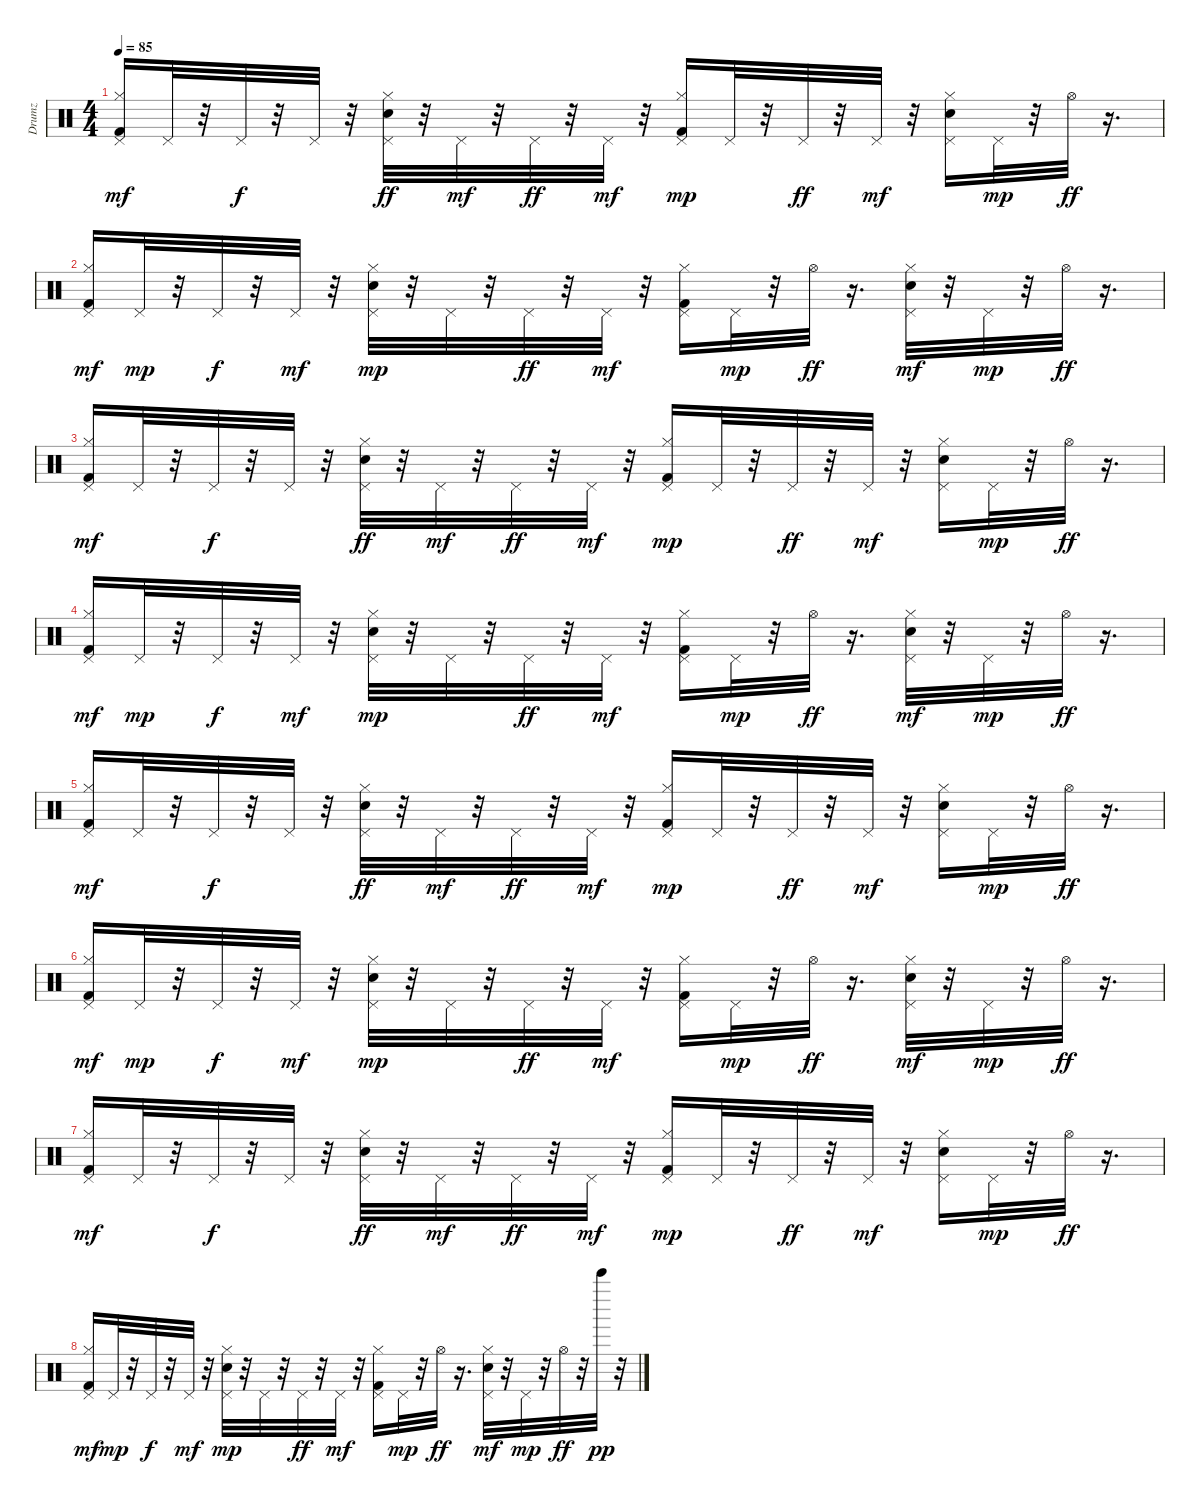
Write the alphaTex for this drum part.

\track ("Drumz" "Drumz") {instrument percussion}
\staff {score}
\articulation defaults
\ts (4 4)
\tempo 85
\clef neutral
\ks c
("Kick (hit) 2" "Hi-Hat (closed)" "Pedal Hi-Hat (hit)").16{dy mf volume 12} "Pedal Hi-Hat (hit)".32 r.32 "Pedal Hi-Hat (hit)".32{dy f} r.32 "Pedal Hi-Hat (hit)".32 r.32 ("Hand Clap (hit)" "Hi-Hat (closed)" "Pedal Hi-Hat (hit)").32{dy ff} r.32 "Pedal Hi-Hat (hit)".32{dy mf} r.32 "Pedal Hi-Hat (hit)".32{dy ff} r.32 "Pedal Hi-Hat (hit)".32{dy mf} r.32 ("Kick (hit) 2" "Hi-Hat (closed)" "Pedal Hi-Hat (hit)").16{dy mp} "Pedal Hi-Hat (hit)".32 r.32 "Pedal Hi-Hat (hit)".32{dy ff} r.32 "Pedal Hi-Hat (hit)".32{dy mf} r.32 ("Hand Clap (hit)" "Hi-Hat (closed)" "Pedal Hi-Hat (hit)").16 "Pedal Hi-Hat (hit)".32{dy mp} r.32 "Hi-Hat (open)".32{dy ff} r.16{d} |
("Kick (hit) 2" "Hi-Hat (closed)" "Pedal Hi-Hat (hit)").16{dy mf} "Pedal Hi-Hat (hit)".32{dy mp} r.32 "Pedal Hi-Hat (hit)".32{dy f} r.32 "Pedal Hi-Hat (hit)".32{dy mf} r.32 ("Hand Clap (hit)" "Hi-Hat (closed)" "Pedal Hi-Hat (hit)").32{dy mp} r.32 "Pedal Hi-Hat (hit)".32 r.32 "Pedal Hi-Hat (hit)".32{dy ff} r.32 "Pedal Hi-Hat (hit)".32{dy mf} r.32 ("Kick (hit) 2" "Hi-Hat (closed)" "Pedal Hi-Hat (hit)").16 "Pedal Hi-Hat (hit)".32{dy mp} r.32 "Hi-Hat (open)".32{dy ff} r.16{d} ("Hand Clap (hit)" "Hi-Hat (closed)" "Pedal Hi-Hat (hit)").32{dy mf} r.32 "Pedal Hi-Hat (hit)".32{dy mp} r.32 "Hi-Hat (open)".32{dy ff} r.16{d} |
("Kick (hit) 2" "Hi-Hat (closed)" "Pedal Hi-Hat (hit)").16{dy mf} "Pedal Hi-Hat (hit)".32 r.32 "Pedal Hi-Hat (hit)".32{dy f} r.32 "Pedal Hi-Hat (hit)".32 r.32 ("Hand Clap (hit)" "Hi-Hat (closed)" "Pedal Hi-Hat (hit)").32{dy ff} r.32 "Pedal Hi-Hat (hit)".32{dy mf} r.32 "Pedal Hi-Hat (hit)".32{dy ff} r.32 "Pedal Hi-Hat (hit)".32{dy mf} r.32 ("Kick (hit) 2" "Hi-Hat (closed)" "Pedal Hi-Hat (hit)").16{dy mp} "Pedal Hi-Hat (hit)".32 r.32 "Pedal Hi-Hat (hit)".32{dy ff} r.32 "Pedal Hi-Hat (hit)".32{dy mf} r.32 ("Hand Clap (hit)" "Hi-Hat (closed)" "Pedal Hi-Hat (hit)").16 "Pedal Hi-Hat (hit)".32{dy mp} r.32 "Hi-Hat (open)".32{dy ff} r.16{d} |
("Kick (hit) 2" "Hi-Hat (closed)" "Pedal Hi-Hat (hit)").16{dy mf} "Pedal Hi-Hat (hit)".32{dy mp} r.32 "Pedal Hi-Hat (hit)".32{dy f} r.32 "Pedal Hi-Hat (hit)".32{dy mf} r.32 ("Hand Clap (hit)" "Hi-Hat (closed)" "Pedal Hi-Hat (hit)").32{dy mp} r.32 "Pedal Hi-Hat (hit)".32 r.32 "Pedal Hi-Hat (hit)".32{dy ff} r.32 "Pedal Hi-Hat (hit)".32{dy mf} r.32 ("Kick (hit) 2" "Hi-Hat (closed)" "Pedal Hi-Hat (hit)").16 "Pedal Hi-Hat (hit)".32{dy mp} r.32 "Hi-Hat (open)".32{dy ff} r.16{d} ("Hand Clap (hit)" "Hi-Hat (closed)" "Pedal Hi-Hat (hit)").32{dy mf} r.32 "Pedal Hi-Hat (hit)".32{dy mp} r.32 "Hi-Hat (open)".32{dy ff} r.16{d} |
("Kick (hit) 2" "Hi-Hat (closed)" "Pedal Hi-Hat (hit)").16{dy mf} "Pedal Hi-Hat (hit)".32 r.32 "Pedal Hi-Hat (hit)".32{dy f} r.32 "Pedal Hi-Hat (hit)".32 r.32 ("Hand Clap (hit)" "Hi-Hat (closed)" "Pedal Hi-Hat (hit)").32{dy ff} r.32 "Pedal Hi-Hat (hit)".32{dy mf} r.32 "Pedal Hi-Hat (hit)".32{dy ff} r.32 "Pedal Hi-Hat (hit)".32{dy mf} r.32 ("Kick (hit) 2" "Hi-Hat (closed)" "Pedal Hi-Hat (hit)").16{dy mp} "Pedal Hi-Hat (hit)".32 r.32 "Pedal Hi-Hat (hit)".32{dy ff} r.32 "Pedal Hi-Hat (hit)".32{dy mf} r.32 ("Hand Clap (hit)" "Hi-Hat (closed)" "Pedal Hi-Hat (hit)").16 "Pedal Hi-Hat (hit)".32{dy mp} r.32 "Hi-Hat (open)".32{dy ff} r.16{d} |
("Kick (hit) 2" "Hi-Hat (closed)" "Pedal Hi-Hat (hit)").16{dy mf} "Pedal Hi-Hat (hit)".32{dy mp} r.32 "Pedal Hi-Hat (hit)".32{dy f} r.32 "Pedal Hi-Hat (hit)".32{dy mf} r.32 ("Hand Clap (hit)" "Hi-Hat (closed)" "Pedal Hi-Hat (hit)").32{dy mp} r.32 "Pedal Hi-Hat (hit)".32 r.32 "Pedal Hi-Hat (hit)".32{dy ff} r.32 "Pedal Hi-Hat (hit)".32{dy mf} r.32 ("Kick (hit) 2" "Hi-Hat (closed)" "Pedal Hi-Hat (hit)").16 "Pedal Hi-Hat (hit)".32{dy mp} r.32 "Hi-Hat (open)".32{dy ff} r.16{d} ("Hand Clap (hit)" "Hi-Hat (closed)" "Pedal Hi-Hat (hit)").32{dy mf} r.32 "Pedal Hi-Hat (hit)".32{dy mp} r.32 "Hi-Hat (open)".32{dy ff} r.16{d} |
("Kick (hit) 2" "Hi-Hat (closed)" "Pedal Hi-Hat (hit)").16{dy mf} "Pedal Hi-Hat (hit)".32 r.32 "Pedal Hi-Hat (hit)".32{dy f} r.32 "Pedal Hi-Hat (hit)".32 r.32 ("Hand Clap (hit)" "Hi-Hat (closed)" "Pedal Hi-Hat (hit)").32{dy ff} r.32 "Pedal Hi-Hat (hit)".32{dy mf} r.32 "Pedal Hi-Hat (hit)".32{dy ff} r.32 "Pedal Hi-Hat (hit)".32{dy mf} r.32 ("Kick (hit) 2" "Hi-Hat (closed)" "Pedal Hi-Hat (hit)").16{dy mp} "Pedal Hi-Hat (hit)".32 r.32 "Pedal Hi-Hat (hit)".32{dy ff} r.32 "Pedal Hi-Hat (hit)".32{dy mf} r.32 ("Hand Clap (hit)" "Hi-Hat (closed)" "Pedal Hi-Hat (hit)").16 "Pedal Hi-Hat (hit)".32{dy mp} r.32 "Hi-Hat (open)".32{dy ff} r.16{d} |
("Kick (hit) 2" "Hi-Hat (closed)" "Pedal Hi-Hat (hit)").16{dy mf} "Pedal Hi-Hat (hit)".32{dy mp} r.32 "Pedal Hi-Hat (hit)".32{dy f} r.32 "Pedal Hi-Hat (hit)".32{dy mf} r.32 ("Hand Clap (hit)" "Hi-Hat (closed)" "Pedal Hi-Hat (hit)").32{dy mp} r.32 "Pedal Hi-Hat (hit)".32 r.32 "Pedal Hi-Hat (hit)".32{dy ff} r.32 "Pedal Hi-Hat (hit)".32{dy mf} r.32 ("Kick (hit) 2" "Hi-Hat (closed)" "Pedal Hi-Hat (hit)").16 "Pedal Hi-Hat (hit)".32{dy mp} r.32 "Hi-Hat (open)".32{dy ff} r.16{d} ("Hand Clap (hit)" "Hi-Hat (closed)" "Pedal Hi-Hat (hit)").32{dy mf} r.32 "Pedal Hi-Hat (hit)".32{dy mp} r.32 "Hi-Hat (open)".32{dy ff} r.32 "Bell Tree (hit)".32{dy pp} r.32
